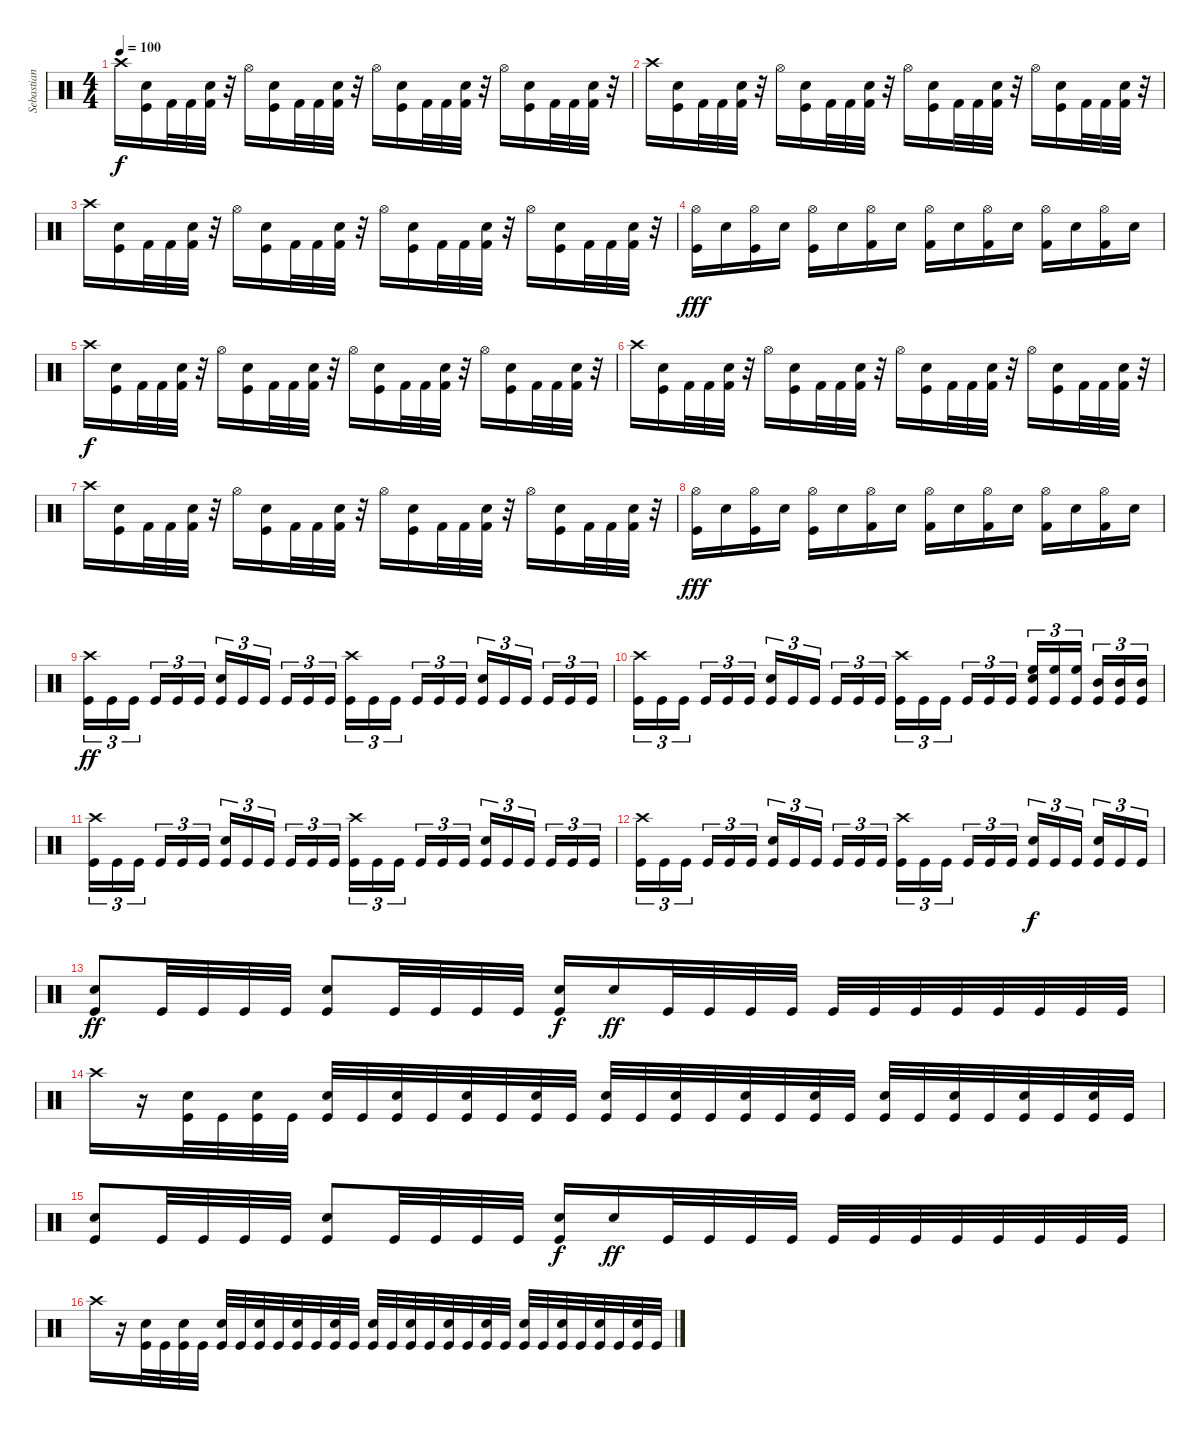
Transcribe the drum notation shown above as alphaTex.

\track ("Sebastian Heldt" "Sebastian ") {instrument percussion}
\staff {score}
\articulation defaults
\ts (4 4)
\tempo 100
\clef neutral
\ks c "Crash high (hit)".16{dy f}
("Kick (hit)" "Snare (hit) 2").16 "Kick (hit) 2".32 "Kick (hit) 2".32 ("Kick (hit) 2" "Snare (hit) 2").32 r.32 "Hi-Hat (open)".16 ("Kick (hit)" "Snare (hit) 2").16 "Kick (hit) 2".32 "Kick (hit) 2".32 ("Kick (hit) 2" "Snare (hit) 2").32 r.32 "Hi-Hat (open)".16 ("Kick (hit)" "Snare (hit) 2").16 "Kick (hit) 2".32 "Kick (hit) 2".32 ("Kick (hit) 2" "Snare (hit) 2").32 r.32 "Hi-Hat (open)".16 ("Kick (hit)" "Snare (hit) 2").16 "Kick (hit) 2".32 "Kick (hit) 2".32 ("Kick (hit) 2" "Snare (hit) 2").32 r.32 |
"Crash high (hit)".16 ("Kick (hit)" "Snare (hit) 2").16 "Kick (hit) 2".32 "Kick (hit) 2".32 ("Kick (hit) 2" "Snare (hit) 2").32 r.32 "Hi-Hat (open)".16 ("Kick (hit)" "Snare (hit) 2").16 "Kick (hit) 2".32 "Kick (hit) 2".32 ("Kick (hit) 2" "Snare (hit) 2").32 r.32 "Hi-Hat (open)".16 ("Kick (hit)" "Snare (hit) 2").16 "Kick (hit) 2".32 "Kick (hit) 2".32 ("Kick (hit) 2" "Snare (hit) 2").32 r.32 "Hi-Hat (open)".16 ("Kick (hit)" "Snare (hit) 2").16 "Kick (hit) 2".32 "Kick (hit) 2".32 ("Kick (hit) 2" "Snare (hit) 2").32 r.32 |
"Crash high (hit)".16 ("Kick (hit)" "Snare (hit) 2").16 "Kick (hit) 2".32 "Kick (hit) 2".32 ("Kick (hit) 2" "Snare (hit) 2").32 r.32 "Hi-Hat (open)".16 ("Kick (hit)" "Snare (hit) 2").16 "Kick (hit) 2".32 "Kick (hit) 2".32 ("Kick (hit) 2" "Snare (hit) 2").32 r.32 "Hi-Hat (open)".16 ("Kick (hit)" "Snare (hit) 2").16 "Kick (hit) 2".32 "Kick (hit) 2".32 ("Kick (hit) 2" "Snare (hit) 2").32 r.32 "Hi-Hat (open)".16 ("Kick (hit)" "Snare (hit) 2").16 "Kick (hit) 2".32 "Kick (hit) 2".32 ("Kick (hit) 2" "Snare (hit) 2").32 r.32 |
("Kick (hit)" "Hi-Hat (open)").16{dy fff} "Snare (hit) 2".16 ("Kick (hit)" "Hi-Hat (open)").16 "Snare (hit) 2".16 ("Kick (hit)" "Hi-Hat (open)").16 "Snare (hit) 2".16 ("Kick (hit) 2" "Hi-Hat (open)").16 "Snare (hit) 2".16 ("Kick (hit) 2" "Hi-Hat (open)").16 "Snare (hit) 2".16 ("Kick (hit) 2" "Hi-Hat (open)").16 "Snare (hit) 2".16 ("Kick (hit) 2" "Hi-Hat (open)").16 "Snare (hit) 2".16 ("Kick (hit) 2" "Hi-Hat (open)").16 "Snare (hit) 2".16 |
"Crash high (hit)".16{dy f} ("Kick (hit)" "Snare (hit) 2").16 "Kick (hit) 2".32 "Kick (hit) 2".32 ("Kick (hit) 2" "Snare (hit) 2").32 r.32 "Hi-Hat (open)".16 ("Kick (hit)" "Snare (hit) 2").16 "Kick (hit) 2".32 "Kick (hit) 2".32 ("Kick (hit) 2" "Snare (hit) 2").32 r.32 "Hi-Hat (open)".16 ("Kick (hit)" "Snare (hit) 2").16 "Kick (hit) 2".32 "Kick (hit) 2".32 ("Kick (hit) 2" "Snare (hit) 2").32 r.32 "Hi-Hat (open)".16 ("Kick (hit)" "Snare (hit) 2").16 "Kick (hit) 2".32 "Kick (hit) 2".32 ("Kick (hit) 2" "Snare (hit) 2").32 r.32 |
"Crash high (hit)".16 ("Kick (hit)" "Snare (hit) 2").16 "Kick (hit) 2".32 "Kick (hit) 2".32 ("Kick (hit) 2" "Snare (hit) 2").32 r.32 "Hi-Hat (open)".16 ("Kick (hit)" "Snare (hit) 2").16 "Kick (hit) 2".32 "Kick (hit) 2".32 ("Kick (hit) 2" "Snare (hit) 2").32 r.32 "Hi-Hat (open)".16 ("Kick (hit)" "Snare (hit) 2").16 "Kick (hit) 2".32 "Kick (hit) 2".32 ("Kick (hit) 2" "Snare (hit) 2").32 r.32 "Hi-Hat (open)".16 ("Kick (hit)" "Snare (hit) 2").16 "Kick (hit) 2".32 "Kick (hit) 2".32 ("Kick (hit) 2" "Snare (hit) 2").32 r.32 |
"Crash high (hit)".16 ("Kick (hit)" "Snare (hit) 2").16 "Kick (hit) 2".32 "Kick (hit) 2".32 ("Kick (hit) 2" "Snare (hit) 2").32 r.32 "Hi-Hat (open)".16 ("Kick (hit)" "Snare (hit) 2").16 "Kick (hit) 2".32 "Kick (hit) 2".32 ("Kick (hit) 2" "Snare (hit) 2").32 r.32 "Hi-Hat (open)".16 ("Kick (hit)" "Snare (hit) 2").16 "Kick (hit) 2".32 "Kick (hit) 2".32 ("Kick (hit) 2" "Snare (hit) 2").32 r.32 "Hi-Hat (open)".16 ("Kick (hit)" "Snare (hit) 2").16 "Kick (hit) 2".32 "Kick (hit) 2".32 ("Kick (hit) 2" "Snare (hit) 2").32 r.32 |
("Kick (hit)" "Hi-Hat (open)").16{dy fff} "Snare (hit) 2".16 ("Kick (hit)" "Hi-Hat (open)").16 "Snare (hit) 2".16 ("Kick (hit)" "Hi-Hat (open)").16 "Snare (hit) 2".16 ("Kick (hit) 2" "Hi-Hat (open)").16 "Snare (hit) 2".16 ("Kick (hit) 2" "Hi-Hat (open)").16 "Snare (hit) 2".16 ("Kick (hit) 2" "Hi-Hat (open)").16 "Snare (hit) 2".16 ("Kick (hit) 2" "Hi-Hat (open)").16 "Snare (hit) 2".16 ("Kick (hit) 2" "Hi-Hat (open)").16 "Snare (hit) 2".16 |
("Kick (hit)" "Crash high (hit)").16{tu (3 2) dy ff} "Kick (hit)".16{tu (3 2)} "Kick (hit)".16{tu (3 2) beam splitsecondary} "Kick (hit)".16{tu (3 2)} "Kick (hit)".16{tu (3 2)} "Kick (hit)".16{tu (3 2)} ("Kick (hit)" "Snare (hit) 2").16{tu (3 2)} "Kick (hit)".16{tu (3 2)} "Kick (hit)".16{tu (3 2) beam splitsecondary} "Kick (hit)".16{tu (3 2)} "Kick (hit)".16{tu (3 2)} "Kick (hit)".16{tu (3 2)} ("Kick (hit)" "Crash high (hit)").16{tu (3 2)} "Kick (hit)".16{tu (3 2)} "Kick (hit)".16{tu (3 2) beam splitsecondary} "Kick (hit)".16{tu (3 2)} "Kick (hit)".16{tu (3 2)} "Kick (hit)".16{tu (3 2)} ("Kick (hit)" "Snare (hit) 2").16{tu (3 2)} "Kick (hit)".16{tu (3 2)} "Kick (hit)".16{tu (3 2) beam splitsecondary} "Kick (hit)".16{tu (3 2)} "Kick (hit)".16{tu (3 2)} "Kick (hit)".16{tu (3 2)} |
("Kick (hit)" "Crash high (hit)").16{tu (3 2)} "Kick (hit)".16{tu (3 2)} "Kick (hit)".16{tu (3 2) beam splitsecondary} "Kick (hit)".16{tu (3 2)} "Kick (hit)".16{tu (3 2)} "Kick (hit)".16{tu (3 2)} ("Kick (hit)" "Snare (hit) 2").16{tu (3 2)} "Kick (hit)".16{tu (3 2)} "Kick (hit)".16{tu (3 2) beam splitsecondary} "Kick (hit)".16{tu (3 2)} "Kick (hit)".16{tu (3 2)} "Kick (hit)".16{tu (3 2)} ("Kick (hit)" "Crash high (hit)").16{tu (3 2)} "Kick (hit)".16{tu (3 2)} "Kick (hit)".16{tu (3 2) beam splitsecondary} "Kick (hit)".16{tu (3 2)} "Kick (hit)".16{tu (3 2)} "Kick (hit)".16{tu (3 2)} ("Kick (hit)" "Snare (hit) 2" "High Floor Tom (hit)").16{tu (3 2)} ("Kick (hit)" "High Floor Tom (hit)").16{tu (3 2)} ("Kick (hit)" "High Floor Tom (hit)").16{tu (3 2) beam splitsecondary} ("Kick (hit)" "Mid Tom (hit)").16{tu (3 2)} ("Kick (hit)" "Mid Tom (hit)").16{tu (3 2)} ("Kick (hit)" "Mid Tom (hit)").16{tu (3 2)} |
("Kick (hit)" "Crash high (hit)").16{tu (3 2)} "Kick (hit)".16{tu (3 2)} "Kick (hit)".16{tu (3 2) beam splitsecondary} "Kick (hit)".16{tu (3 2)} "Kick (hit)".16{tu (3 2)} "Kick (hit)".16{tu (3 2)} ("Kick (hit)" "Snare (hit) 2").16{tu (3 2)} "Kick (hit)".16{tu (3 2)} "Kick (hit)".16{tu (3 2) beam splitsecondary} "Kick (hit)".16{tu (3 2)} "Kick (hit)".16{tu (3 2)} "Kick (hit)".16{tu (3 2)} ("Kick (hit)" "Crash high (hit)").16{tu (3 2)} "Kick (hit)".16{tu (3 2)} "Kick (hit)".16{tu (3 2) beam splitsecondary} "Kick (hit)".16{tu (3 2)} "Kick (hit)".16{tu (3 2)} "Kick (hit)".16{tu (3 2)} ("Kick (hit)" "Snare (hit) 2").16{tu (3 2)} "Kick (hit)".16{tu (3 2)} "Kick (hit)".16{tu (3 2) beam splitsecondary} "Kick (hit)".16{tu (3 2)} "Kick (hit)".16{tu (3 2)} "Kick (hit)".16{tu (3 2)} |
("Kick (hit)" "Crash high (hit)").16{tu (3 2)} "Kick (hit)".16{tu (3 2)} "Kick (hit)".16{tu (3 2) beam splitsecondary} "Kick (hit)".16{tu (3 2)} "Kick (hit)".16{tu (3 2)} "Kick (hit)".16{tu (3 2)} ("Kick (hit)" "Snare (hit) 2").16{tu (3 2)} "Kick (hit)".16{tu (3 2)} "Kick (hit)".16{tu (3 2) beam splitsecondary} "Kick (hit)".16{tu (3 2)} "Kick (hit)".16{tu (3 2)} "Kick (hit)".16{tu (3 2)} ("Kick (hit)" "Crash high (hit)").16{tu (3 2)} "Kick (hit)".16{tu (3 2)} "Kick (hit)".16{tu (3 2) beam splitsecondary} "Kick (hit)".16{tu (3 2)} "Kick (hit)".16{tu (3 2)} "Kick (hit)".16{tu (3 2)} ("Kick (hit)" "Snare (hit) 2").16{tu (3 2) dy f} "Kick (hit)".16{tu (3 2)} "Kick (hit)".16{tu (3 2) beam splitsecondary} ("Kick (hit)" "Snare (hit) 2").16{tu (3 2)} "Kick (hit)".16{tu (3 2)} "Kick (hit)".16{tu (3 2)} |
("Kick (hit)" "Snare (hit) 2").8{dy ff} "Kick (hit)".32 "Kick (hit)".32 "Kick (hit)".32 "Kick (hit)".32 ("Kick (hit)" "Snare (hit) 2").8 "Kick (hit)".32 "Kick (hit)".32 "Kick (hit)".32 "Kick (hit)".32 ("Kick (hit)" "Snare (hit) 2").16{dy f} "Snare (hit) 2".16{dy ff} "Kick (hit)".32 "Kick (hit)".32 "Kick (hit)".32 "Kick (hit)".32 "Kick (hit)".32 "Kick (hit)".32 "Kick (hit)".32 "Kick (hit)".32 "Kick (hit)".32 "Kick (hit)".32 "Kick (hit)".32 "Kick (hit)".32 |
"Crash high (hit)".16 r.16 ("Snare (hit) 2" "Kick (hit)").32 "Kick (hit)".32 ("Snare (hit) 2" "Kick (hit)").32 "Kick (hit)".32 ("Snare (hit) 2" "Kick (hit)").32 "Kick (hit)".32 ("Snare (hit) 2" "Kick (hit)").32 "Kick (hit)".32 ("Snare (hit) 2" "Kick (hit)").32 "Kick (hit)".32 ("Snare (hit) 2" "Kick (hit)").32 "Kick (hit)".32 ("Snare (hit) 2" "Kick (hit)").32 "Kick (hit)".32 ("Snare (hit) 2" "Kick (hit)").32 "Kick (hit)".32 ("Snare (hit) 2" "Kick (hit)").32 "Kick (hit)".32 ("Snare (hit) 2" "Kick (hit)").32 "Kick (hit)".32 ("Snare (hit) 2" "Kick (hit)").32 "Kick (hit)".32 ("Snare (hit) 2" "Kick (hit)").32 "Kick (hit)".32 ("Snare (hit) 2" "Kick (hit)").32 "Kick (hit)".32 ("Snare (hit) 2" "Kick (hit)").32 "Kick (hit)".32 |
("Kick (hit)" "Snare (hit) 2").8 "Kick (hit)".32 "Kick (hit)".32 "Kick (hit)".32 "Kick (hit)".32 ("Kick (hit)" "Snare (hit) 2").8 "Kick (hit)".32 "Kick (hit)".32 "Kick (hit)".32 "Kick (hit)".32 ("Kick (hit)" "Snare (hit) 2").16{dy f} "Snare (hit) 2".16{dy ff} "Kick (hit)".32 "Kick (hit)".32 "Kick (hit)".32 "Kick (hit)".32 "Kick (hit)".32 "Kick (hit)".32 "Kick (hit)".32 "Kick (hit)".32 "Kick (hit)".32 "Kick (hit)".32 "Kick (hit)".32 "Kick (hit)".32 |
"Crash high (hit)".16 r.16 ("Snare (hit) 2" "Kick (hit)").32 "Kick (hit)".32 ("Snare (hit) 2" "Kick (hit)").32 "Kick (hit)".32 ("Snare (hit) 2" "Kick (hit)").32 "Kick (hit)".32 ("Snare (hit) 2" "Kick (hit)").32 "Kick (hit)".32 ("Snare (hit) 2" "Kick (hit)").32 "Kick (hit)".32 ("Snare (hit) 2" "Kick (hit)").32 "Kick (hit)".32 ("Snare (hit) 2" "Kick (hit)").32 "Kick (hit)".32 ("Snare (hit) 2" "Kick (hit)").32 "Kick (hit)".32 ("Snare (hit) 2" "Kick (hit)").32 "Kick (hit)".32 ("Snare (hit) 2" "Kick (hit)").32 "Kick (hit)".32 ("Snare (hit) 2" "Kick (hit)").32 "Kick (hit)".32 ("Snare (hit) 2" "Kick (hit)").32 "Kick (hit)".32 ("Snare (hit) 2" "Kick (hit)").32 "Kick (hit)".32 ("Snare (hit) 2" "Kick (hit)").32 "Kick (hit)".32
